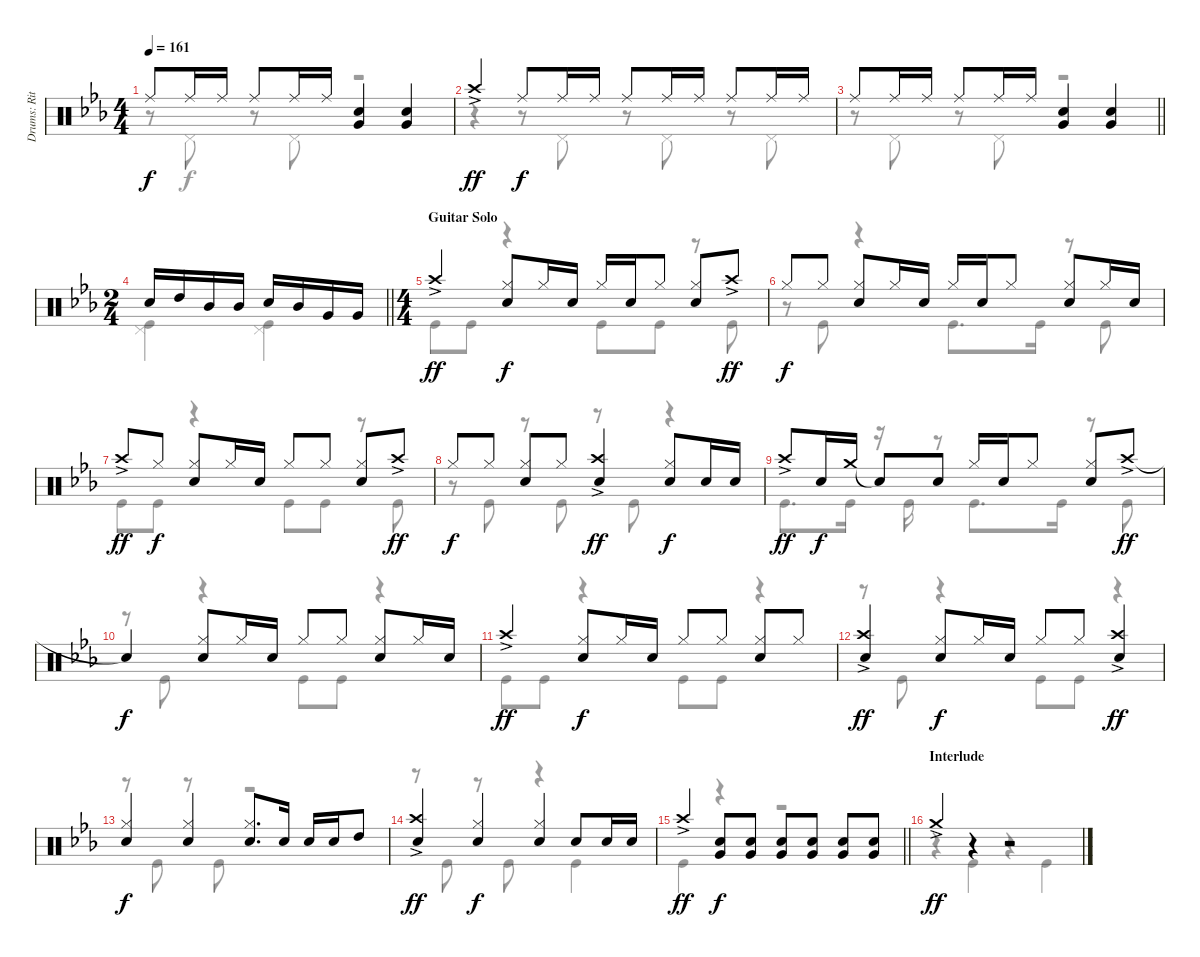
\track ("Drums: Ritsu Tianaka" "Drums: Rit") {instrument percussion}
\staff {score}
\articulation defaults
\voice
\ts (4 4)
\tempo 161
\clef neutral
\ks eb "Ride (middle)".8{dy f} "Ride (middle)".16 "Ride (middle)".16 "Ride (middle)".8 "Ride (middle)".16 "Ride (middle)".16
("Snare (hit) 2" "Very Low Tom (hit)").4 ("Snare (hit) 2" "Very Low Tom (hit)").4 |
"Crash high (hit)"{ac}.4{dy ff} "Ride (middle)".8{dy f} "Ride (middle)".16 "Ride (middle)".16 "Ride (middle)".8 "Ride (middle)".16 "Ride (middle)".16 "Ride (middle)".8 "Ride (middle)".16 "Ride (middle)".16 |
\barLineRight lightlight "Ride (middle)".8 "Ride (middle)".16 "Ride (middle)".16 "Ride (middle)".8 "Ride (middle)".16 "Ride (middle)".16
("Snare (hit) 2" "Very Low Tom (hit)").4 ("Snare (hit) 2" "Very Low Tom (hit)").4 |
\ts (2 4)
\section ("" "")
\barLineRight lightlight "Snare (hit) 2".16 "High Tom (hit)".16 "Mid Tom (hit)".16 "Mid Tom (hit)".16 "Snare (hit) 2".16 "Mid Tom (hit)".16 "Very Low Tom (hit)".16 "Very Low Tom (hit)".16
|
\ts (4 4)
\section ("" "Guitar Solo")
"Crash high (hit)"{ac}.4{dy ff} ("Hi-Hat (closed)" "Snare (hit) 2").8{dy f} "Hi-Hat (closed)".16 "Snare (hit) 2".16 "Hi-Hat (closed)".16 "Snare (hit) 2".16 "Hi-Hat (closed)".8 ("Hi-Hat (closed)" "Snare (hit) 2").8 "Crash high (hit)"{ac}.8{dy ff} |
"Hi-Hat (closed)".8{dy f} "Hi-Hat (closed)".8 ("Hi-Hat (closed)" "Snare (hit) 2").8 "Hi-Hat (closed)".16 "Snare (hit) 2".16 "Hi-Hat (closed)".16 "Snare (hit) 2".16 "Hi-Hat (closed)".8 ("Hi-Hat (closed)" "Snare (hit) 2").8 "Hi-Hat (closed)".16 "Snare (hit) 2".16 |
"Crash high (hit)"{ac}.8{dy ff} "Hi-Hat (closed)".8{dy f} ("Hi-Hat (closed)" "Snare (hit) 2").8 "Hi-Hat (closed)".16 "Snare (hit) 2".16 "Hi-Hat (closed)".8 "Hi-Hat (closed)".8 ("Hi-Hat (closed)" "Snare (hit) 2").8 "Crash high (hit)"{ac}.8{dy ff} |
"Hi-Hat (closed)".8{dy f} "Hi-Hat (closed)".8 ("Hi-Hat (closed)" "Snare (hit) 2").8 "Hi-Hat (closed)".8 ("Crash high (hit)"{ac} "Snare (hit) 2").4{dy ff} ("Hi-Hat (closed)" "Snare (hit) 2").8{dy f} "Snare (hit) 2".16 "Snare (hit) 2".16 |
"Crash high (hit)"{ac}.8{dy ff} "Snare (hit) 2".16{dy f} "Crash medium (hit)".16 "Snare (hit)"{t}.8 "Snare (hit) 2".8 "Hi-Hat (closed)".16 "Snare (hit) 2".16 "Hi-Hat (closed)".8 ("Hi-Hat (closed)" "Snare (hit) 2").8 "Crash high (hit)"{ac}.8{dy ff} |
"Snare (hit)"{t}.4{dy f} ("Hi-Hat (closed)" "Snare (hit) 2").8 "Hi-Hat (closed)".16 "Snare (hit) 2".16 "Hi-Hat (closed)".8 "Hi-Hat (closed)".8 ("Hi-Hat (closed)" "Snare (hit) 2").8 "Hi-Hat (closed)".16 "Snare (hit) 2".16 |
"Crash high (hit)"{ac}.4{dy ff} ("Hi-Hat (closed)" "Snare (hit) 2").8{dy f} "Hi-Hat (closed)".16 "Snare (hit) 2".16 "Hi-Hat (closed)".8 "Hi-Hat (closed)".8 ("Hi-Hat (closed)" "Snare (hit) 2").8 "Hi-Hat (closed)".8 |
("Crash high (hit)"{ac} "Snare (hit) 2").4{dy ff} ("Hi-Hat (closed)" "Snare (hit) 2").8{dy f} "Hi-Hat (closed)".16 "Snare (hit) 2".16 "Hi-Hat (closed)".8 "Hi-Hat (closed)".8 ("Crash high (hit)"{ac} "Snare (hit) 2").4{dy ff} |
("Hi-Hat (closed)" "Snare (hit) 2").4{dy f} ("Hi-Hat (closed)" "Snare (hit) 2").4 ("Hi-Hat (closed)" "Snare (hit) 2").8{d} "Snare (hit) 2".16 "Snare (hit) 2".16 "Snare (hit) 2".16 "High Tom (hit)".8 |
("Crash high (hit)"{ac} "Snare (hit) 2").4{dy ff} ("Hi-Hat (closed)" "Snare (hit) 2").4{dy f} ("Hi-Hat (closed)" "Snare (hit) 2").4 "Snare (hit) 2".8 "Snare (hit) 2".16 "Snare (hit) 2".16 |
\barLineRight lightlight "Crash high (hit)"{ac}.4{dy ff volume 13}
("Snare (hit) 2" "Very Low Tom (hit)").8{dy f volume 15} ("Snare (hit) 2" "Very Low Tom (hit)").8 ("Snare (hit) 2" "Very Low Tom (hit)").8 ("Snare (hit) 2" "Very Low Tom (hit)").8 ("Snare (hit) 2" "Very Low Tom (hit)").8 ("Snare (hit) 2" "Very Low Tom (hit)").8 |
\section ("" "Interlude")
"Crash medium (hit)"{ac}.4{dy ff} r.4 r.2
\voice
\clef neutral
\ottava regular
\simile none
\ks eb
r.8{dy f} "Pedal Hi-Hat (hit)".8 r.8 "Pedal Hi-Hat (hit)".8 r.2 |
r.4 r.8 "Pedal Hi-Hat (hit)".8 r.8 "Pedal Hi-Hat (hit)".8 r.8 "Pedal Hi-Hat (hit)".8 |
\barLineRight lightlight
r.8 "Pedal Hi-Hat (hit)".8 r.8 "Pedal Hi-Hat (hit)".8 r.2 |
\barLineRight lightlight
("Pedal Hi-Hat (hit)" "Kick (hit)").4 ("Pedal Hi-Hat (hit)" "Kick (hit)").4 |
"Kick (hit)".8 "Kick (hit)".8 r.4 "Kick (hit)".8 "Kick (hit)".8 r.8 "Kick (hit)".8 |
r.8 "Kick (hit)".8 r.4 "Kick (hit)".8{d} "Kick (hit)".16 r.8 "Kick (hit)".8 |
"Kick (hit)".8 "Kick (hit)".8 r.4 "Kick (hit)".8 "Kick (hit)".8 r.8 "Kick (hit)".8 |
r.8 "Kick (hit)".8 r.8 "Kick (hit)".8 r.8 "Kick (hit)".8 r.4 |
"Kick (hit)".8{d} "Kick (hit)".16 r.16 "Kick (hit)".16 r.8 "Kick (hit)".8{d} "Kick (hit)".16 r.8 "Kick (hit)".8 |
r.8 "Kick (hit)".8 r.4 "Kick (hit)".8 "Kick (hit)".8 r.4 |
"Kick (hit)".8 "Kick (hit)".8 r.4 "Kick (hit)".8 "Kick (hit)".8 r.4 |
r.8 "Kick (hit)".8 r.4 "Kick (hit)".8 "Kick (hit)".8 r.4 |
r.8 "Kick (hit)".8 r.8 "Kick (hit)".8 r.2 |
r.8 "Kick (hit)".8 r.8 "Kick (hit)".8 r.4 "Kick (hit)".4 |
\barLineRight lightlight "Kick (hit)".4
r.4 r.2 |
r.4 "Kick (hit)".4 r.4 "Kick (hit)".4
